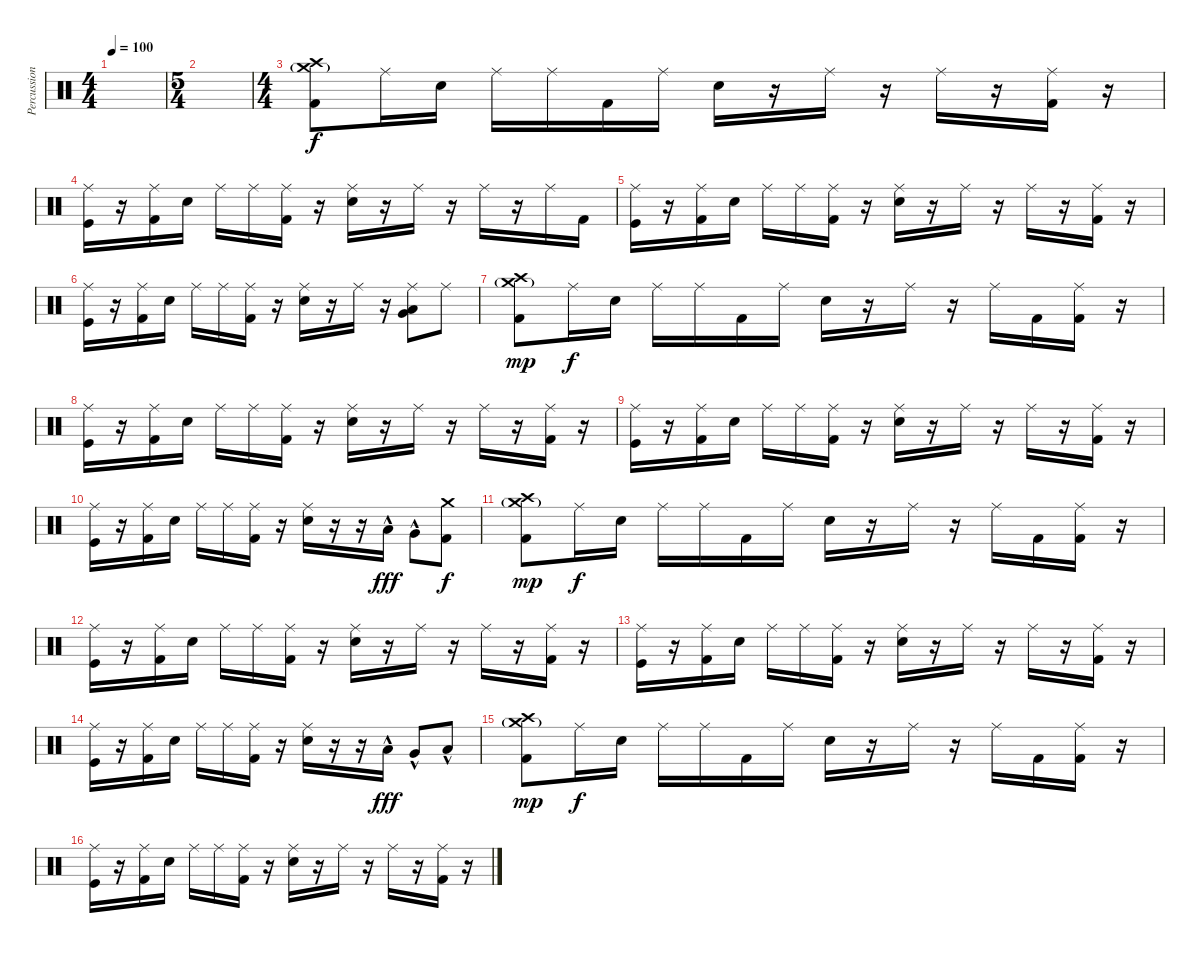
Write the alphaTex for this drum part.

\track ("Percussion" "Percussion") {instrument percussion}
\staff {score}
\articulation defaults
\ts (4 4)
\tempo 100
\clef neutral
\ks c
|
\ts (5 4)
|
\ts (4 4)
("Crash high (hit)" "Crash medium (hit)"{g} "Kick (hit) 2").8 "Ride (middle)".16{dy f} "Electric Snare (hit)".16 "Ride (middle)".16 "Ride (middle)".16 "Kick (hit) 2".16 "Ride (middle)".16 "Electric Snare (hit)".16 r.16 "Ride (middle)".16 r.16 "Ride (middle)".16 r.16 ("Ride (middle)" "Kick (hit) 2").16 r.16 |
("Ride (middle)" "Kick (hit)").16 r.16 ("Ride (middle)" "Kick (hit) 2").16 "Electric Snare (hit)".16 "Ride (middle)".16 "Ride (middle)".16 ("Ride (middle)" "Kick (hit) 2").16 r.16 ("Ride (middle)" "Electric Snare (hit)").16 r.16 "Ride (middle)".16 r.16 "Ride (middle)".16 r.16 "Ride (middle)".16 "Kick (hit) 2".16 |
("Ride (middle)" "Kick (hit)").16 r.16 ("Ride (middle)" "Kick (hit) 2").16 "Electric Snare (hit)".16 "Ride (middle)".16 "Ride (middle)".16 ("Ride (middle)" "Kick (hit) 2").16 r.16 ("Ride (middle)" "Electric Snare (hit)").16 r.16 "Ride (middle)".16 r.16 "Ride (middle)".16 r.16 ("Ride (middle)" "Kick (hit) 2").16 r.16 |
("Ride (middle)" "Kick (hit)").16 r.16 ("Ride (middle)" "Kick (hit) 2").16 "Electric Snare (hit)".16 "Ride (middle)".16 "Ride (middle)".16 ("Ride (middle)" "Kick (hit) 2").16 r.16 ("Ride (middle)" "Electric Snare (hit)").16 r.16 "Ride (middle)".16 r.16 ("Very Low Tom (hit)" "Ride (middle)" "Low Floor Tom (hit)").8 "Ride (middle)".8 |
("Crash high (hit)" "Crash medium (hit)"{g} "Kick (hit) 2").8{dy mp} "Ride (middle)".16{dy f} "Electric Snare (hit)".16 "Ride (middle)".16 "Ride (middle)".16 "Kick (hit) 2".16 "Ride (middle)".16 "Electric Snare (hit)".16 r.16 "Ride (middle)".16 r.16 "Ride (middle)".16 "Kick (hit) 2".16 ("Ride (middle)" "Kick (hit) 2").16 r.16 |
("Ride (middle)" "Kick (hit)").16 r.16 ("Ride (middle)" "Kick (hit) 2").16 "Electric Snare (hit)".16 "Ride (middle)".16 "Ride (middle)".16 ("Ride (middle)" "Kick (hit) 2").16 r.16 ("Ride (middle)" "Electric Snare (hit)").16 r.16 "Ride (middle)".16 r.16 "Ride (middle)".16 r.16 ("Ride (middle)" "Kick (hit) 2").16 r.16 |
("Ride (middle)" "Kick (hit)").16 r.16 ("Ride (middle)" "Kick (hit) 2").16 "Electric Snare (hit)".16 "Ride (middle)".16 "Ride (middle)".16 ("Ride (middle)" "Kick (hit) 2").16 r.16 ("Ride (middle)" "Electric Snare (hit)").16 r.16 "Ride (middle)".16 r.16 "Ride (middle)".16 r.16 ("Ride (middle)" "Kick (hit) 2").16 r.16 |
("Ride (middle)" "Kick (hit)").16 r.16 ("Ride (middle)" "Kick (hit) 2").16 "Electric Snare (hit)".16 "Ride (middle)".16 "Ride (middle)".16 ("Ride (middle)" "Kick (hit) 2").16 r.16 ("Ride (middle)" "Electric Snare (hit)").16 r.16 r.16 "Low Tom (hit)"{hac}.16{dy fff} "Very Low Tom (hit)"{hac}.8 ("Crash medium (hit)" "Kick (hit) 2").8{dy f} |
("Crash high (hit)" "Crash medium (hit)"{g} "Kick (hit) 2").8{dy mp} "Ride (middle)".16{dy f} "Electric Snare (hit)".16 "Ride (middle)".16 "Ride (middle)".16 "Kick (hit) 2".16 "Ride (middle)".16 "Electric Snare (hit)".16 r.16 "Ride (middle)".16 r.16 "Ride (middle)".16 "Kick (hit) 2".16 ("Ride (middle)" "Kick (hit) 2").16 r.16 |
("Ride (middle)" "Kick (hit)").16 r.16 ("Ride (middle)" "Kick (hit) 2").16 "Electric Snare (hit)".16 "Ride (middle)".16 "Ride (middle)".16 ("Ride (middle)" "Kick (hit) 2").16 r.16 ("Ride (middle)" "Electric Snare (hit)").16 r.16 "Ride (middle)".16 r.16 "Ride (middle)".16 r.16 ("Ride (middle)" "Kick (hit) 2").16 r.16 |
("Ride (middle)" "Kick (hit)").16 r.16 ("Ride (middle)" "Kick (hit) 2").16 "Electric Snare (hit)".16 "Ride (middle)".16 "Ride (middle)".16 ("Ride (middle)" "Kick (hit) 2").16 r.16 ("Ride (middle)" "Electric Snare (hit)").16 r.16 "Ride (middle)".16 r.16 "Ride (middle)".16 r.16 ("Ride (middle)" "Kick (hit) 2").16 r.16 |
("Ride (middle)" "Kick (hit)").16 r.16 ("Ride (middle)" "Kick (hit) 2").16 "Electric Snare (hit)".16 "Ride (middle)".16 "Ride (middle)".16 ("Ride (middle)" "Kick (hit) 2").16 r.16 ("Ride (middle)" "Electric Snare (hit)").16 r.16 r.16 "Low Tom (hit)"{hac}.16{dy fff} "Very Low Tom (hit)"{hac}.8 "Low Floor Tom (hit)"{hac}.8 |
("Crash high (hit)" "Crash medium (hit)"{g} "Kick (hit) 2").8{dy mp} "Ride (middle)".16{dy f} "Electric Snare (hit)".16 "Ride (middle)".16 "Ride (middle)".16 "Kick (hit) 2".16 "Ride (middle)".16 "Electric Snare (hit)".16 r.16 "Ride (middle)".16 r.16 "Ride (middle)".16 "Kick (hit) 2".16 ("Ride (middle)" "Kick (hit) 2").16 r.16 |
("Ride (middle)" "Kick (hit)").16 r.16 ("Ride (middle)" "Kick (hit) 2").16 "Electric Snare (hit)".16 "Ride (middle)".16 "Ride (middle)".16 ("Ride (middle)" "Kick (hit) 2").16 r.16 ("Ride (middle)" "Electric Snare (hit)").16 r.16 "Ride (middle)".16 r.16 "Ride (middle)".16 r.16 ("Ride (middle)" "Kick (hit) 2").16 r.16
